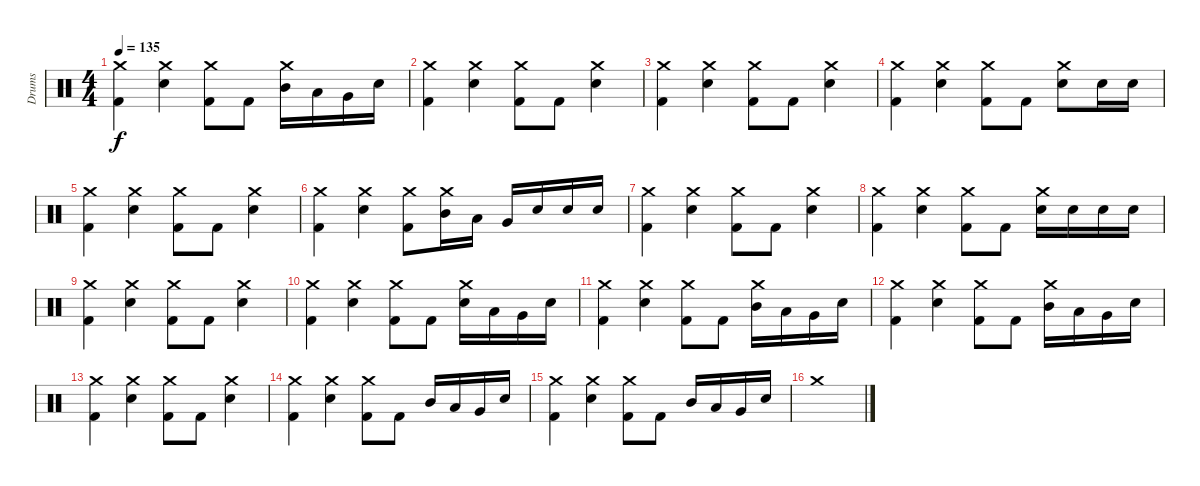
\track ("Drums" "Drums") {instrument percussion}
\staff {score}
\articulation defaults
\ts (4 4)
\tempo 135
\clef neutral
\ks c
("Crash medium (hit)" "Kick (hit) 2").4{dy f} ("Crash medium (hit)" "Electric Snare (hit)").4 ("Crash medium (hit)" "Kick (hit) 2").8 "Kick (hit) 2".8 ("Mid Tom (hit)" "Crash medium (hit)").16 "Low Tom (hit)".16 "Very Low Tom (hit)".16 "Electric Snare (hit)".16 |
("Crash medium (hit)" "Kick (hit) 2").4 ("Crash medium (hit)" "Electric Snare (hit)").4 ("Crash medium (hit)" "Kick (hit) 2").8 "Kick (hit) 2".8 ("Crash medium (hit)" "Electric Snare (hit)").4 |
("Crash medium (hit)" "Kick (hit) 2").4 ("Crash medium (hit)" "Electric Snare (hit)").4 ("Crash medium (hit)" "Kick (hit) 2").8 "Kick (hit) 2".8 ("Crash medium (hit)" "Electric Snare (hit)").4 |
("Crash medium (hit)" "Kick (hit) 2").4 ("Crash medium (hit)" "Electric Snare (hit)").4 ("Crash medium (hit)" "Kick (hit) 2").8 "Kick (hit) 2".8 ("Crash medium (hit)" "Electric Snare (hit)").8 "Electric Snare (hit)".16 "Electric Snare (hit)".16 |
("Crash medium (hit)" "Kick (hit) 2").4 ("Crash medium (hit)" "Electric Snare (hit)").4 ("Crash medium (hit)" "Kick (hit) 2").8 "Kick (hit) 2".8 ("Crash medium (hit)" "Electric Snare (hit)").4 |
("Crash medium (hit)" "Kick (hit) 2").4 ("Crash medium (hit)" "Electric Snare (hit)").4 ("Crash medium (hit)" "Kick (hit) 2").8 ("Mid Tom (hit)" "Crash medium (hit)").16 "Low Tom (hit)".16 "Very Low Tom (hit)".16 "Electric Snare (hit)".16 "Electric Snare (hit)".16 "Electric Snare (hit)".16 |
("Crash medium (hit)" "Kick (hit) 2").4 ("Crash medium (hit)" "Electric Snare (hit)").4 ("Crash medium (hit)" "Kick (hit) 2").8 "Kick (hit) 2".8 ("Crash medium (hit)" "Electric Snare (hit)").4 |
("Crash medium (hit)" "Kick (hit) 2").4 ("Crash medium (hit)" "Electric Snare (hit)").4 ("Crash medium (hit)" "Kick (hit) 2").8 "Kick (hit) 2".8 ("Crash medium (hit)" "Electric Snare (hit)").16 "Electric Snare (hit)".16 "Electric Snare (hit)".16 "Electric Snare (hit)".16 |
("Crash medium (hit)" "Kick (hit) 2").4 ("Crash medium (hit)" "Electric Snare (hit)").4 ("Crash medium (hit)" "Kick (hit) 2").8 "Kick (hit) 2".8 ("Crash medium (hit)" "Electric Snare (hit)").4 |
("Crash medium (hit)" "Kick (hit) 2").4 ("Crash medium (hit)" "Electric Snare (hit)").4 ("Crash medium (hit)" "Kick (hit) 2").8 "Kick (hit) 2".8 ("Crash medium (hit)" "Electric Snare (hit)").16 "Low Tom (hit)".16 "Very Low Tom (hit)".16 "Electric Snare (hit)".16 |
("Crash medium (hit)" "Kick (hit) 2").4 ("Crash medium (hit)" "Electric Snare (hit)").4 ("Crash medium (hit)" "Kick (hit) 2").8 "Kick (hit) 2".8 ("Mid Tom (hit)" "Crash medium (hit)").16 "Low Tom (hit)".16 "Very Low Tom (hit)".16 "Electric Snare (hit)".16 |
("Crash medium (hit)" "Kick (hit) 2").4 ("Crash medium (hit)" "Electric Snare (hit)").4 ("Crash medium (hit)" "Kick (hit) 2").8 "Kick (hit) 2".8 ("Mid Tom (hit)" "Crash medium (hit)").16 "Low Tom (hit)".16 "Very Low Tom (hit)".16 "Electric Snare (hit)".16 |
("Crash medium (hit)" "Kick (hit) 2").4 ("Crash medium (hit)" "Electric Snare (hit)").4 ("Crash medium (hit)" "Kick (hit) 2").8 "Kick (hit) 2".8 ("Crash medium (hit)" "Electric Snare (hit)").4 |
("Crash medium (hit)" "Kick (hit) 2").4 ("Crash medium (hit)" "Electric Snare (hit)").4 ("Crash medium (hit)" "Kick (hit) 2").8 "Kick (hit) 2".8 "Mid Tom (hit)".16 "Low Tom (hit)".16 "Very Low Tom (hit)".16 "Electric Snare (hit)".16 |
("Crash medium (hit)" "Kick (hit) 2").4 ("Crash medium (hit)" "Electric Snare (hit)").4 ("Crash medium (hit)" "Kick (hit) 2").8 "Kick (hit) 2".8 "Mid Tom (hit)".16 "Low Tom (hit)".16 "Very Low Tom (hit)".16 "Electric Snare (hit)".16 |
"Crash medium (hit)".1
